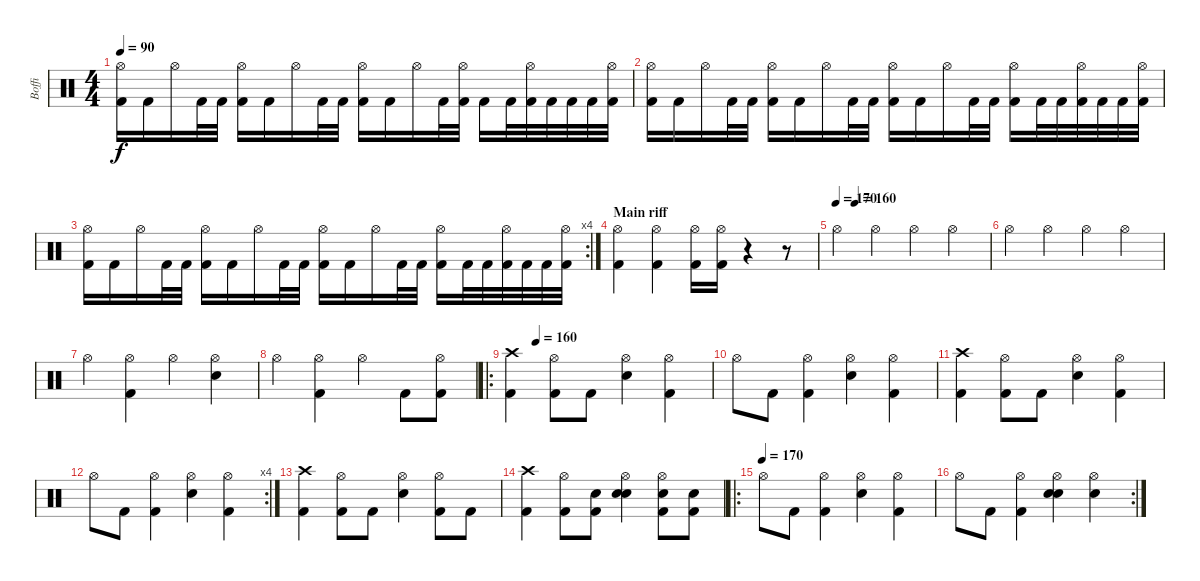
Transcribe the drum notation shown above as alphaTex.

\track ("Boffi" "Boffi") {instrument percussion}
\staff {score}
\articulation defaults
\ts (4 4)
\tempo 90
\clef neutral
\ks c
("Hi-Hat (open)" "Kick (hit) 2").16{dy f} "Kick (hit) 2".16 "Hi-Hat (open)".16 "Kick (hit) 2".32 "Kick (hit) 2".32 ("Hi-Hat (open)" "Kick (hit) 2").16 "Kick (hit) 2".16 "Hi-Hat (open)".16 "Kick (hit) 2".32 "Kick (hit) 2".32 ("Hi-Hat (open)" "Kick (hit) 2").16 "Kick (hit) 2".16 "Hi-Hat (open)".16 "Kick (hit) 2".32 ("Hi-Hat (open)" "Kick (hit) 2").32 "Kick (hit) 2".16 "Kick (hit) 2".32 ("Hi-Hat (open)" "Kick (hit) 2").32 "Kick (hit) 2".32 "Kick (hit) 2".32 "Kick (hit) 2".32 ("Hi-Hat (open)" "Kick (hit) 2").32 |
("Hi-Hat (open)" "Kick (hit) 2").16 "Kick (hit) 2".16 "Hi-Hat (open)".16 "Kick (hit) 2".32 "Kick (hit) 2".32 ("Hi-Hat (open)" "Kick (hit) 2").16 "Kick (hit) 2".16 "Hi-Hat (open)".16 "Kick (hit) 2".32 "Kick (hit) 2".32 ("Hi-Hat (open)" "Kick (hit) 2").16 "Kick (hit) 2".16 "Hi-Hat (open)".16 "Kick (hit) 2".32 "Kick (hit) 2".32 ("Hi-Hat (open)" "Kick (hit) 2").16 "Kick (hit) 2".32 "Kick (hit) 2".32 ("Hi-Hat (open)" "Kick (hit) 2").32 "Kick (hit) 2".32 "Kick (hit) 2".32 ("Hi-Hat (open)" "Kick (hit) 2").32 |
\rc 4
("Hi-Hat (open)" "Kick (hit) 2").16 "Kick (hit) 2".16 "Hi-Hat (open)".16 "Kick (hit) 2".32 "Kick (hit) 2".32 ("Hi-Hat (open)" "Kick (hit) 2").16 "Kick (hit) 2".16 "Hi-Hat (open)".16 "Kick (hit) 2".32 "Kick (hit) 2".32 ("Hi-Hat (open)" "Kick (hit) 2").16 "Kick (hit) 2".16 "Hi-Hat (open)".16 "Kick (hit) 2".32 "Kick (hit) 2".32 ("Hi-Hat (open)" "Kick (hit) 2").16 "Kick (hit) 2".32 "Kick (hit) 2".32 ("Hi-Hat (open)" "Kick (hit) 2").32 "Kick (hit) 2".32 "Kick (hit) 2".32 ("Hi-Hat (open)" "Kick (hit) 2").32 |
\section ("" "Main riff")
("Hi-Hat (open)" "Kick (hit) 2").4 ("Hi-Hat (open)" "Kick (hit) 2").4 ("Hi-Hat (open)" "Kick (hit) 2").16 ("Hi-Hat (open)" "Kick (hit) 2").16 r.4 r.8 |
\tempo 170
\tempo (160 0.125)
"Hi-Hat (open)".4 "Hi-Hat (open)".4 "Hi-Hat (open)".4 "Hi-Hat (open)".4 |
"Hi-Hat (open)".4 "Hi-Hat (open)".4 "Hi-Hat (open)".4 "Hi-Hat (open)".4 |
"Hi-Hat (open)".4 ("Kick (hit) 2" "Hi-Hat (open)").4 "Hi-Hat (open)".4 ("Snare (hit) 2" "Hi-Hat (open)").4 |
"Hi-Hat (open)".4 ("Kick (hit) 2" "Hi-Hat (open)").4 "Hi-Hat (open)".4 "Kick (hit) 2".8 ("Hi-Hat (open)" "Kick (hit) 2").8 |
\ro
\tempo (160 0.125)
("Crash high (hit)" "Kick (hit) 2").4 ("Hi-Hat (open)" "Kick (hit) 2").8 "Kick (hit) 2".8 ("Hi-Hat (open)" "Electric Snare (hit)").4 ("Hi-Hat (open)" "Kick (hit) 2").4 |
"Hi-Hat (open)".8 "Kick (hit) 2".8 ("Hi-Hat (open)" "Kick (hit) 2").4 ("Hi-Hat (open)" "Electric Snare (hit)").4 ("Hi-Hat (open)" "Kick (hit) 2").4 |
("Crash high (hit)" "Kick (hit) 2").4 ("Hi-Hat (open)" "Kick (hit) 2").8 "Kick (hit) 2".8 ("Hi-Hat (open)" "Electric Snare (hit)").4 ("Hi-Hat (open)" "Kick (hit) 2").4 |
\rc 4 "Hi-Hat (open)".8 "Kick (hit) 2".8
("Hi-Hat (open)" "Kick (hit) 2").4 ("Hi-Hat (open)" "Electric Snare (hit)").4 ("Hi-Hat (open)" "Kick (hit) 2").4 |
("Crash high (hit)" "Kick (hit) 2").4 ("Hi-Hat (open)" "Kick (hit) 2").8 "Kick (hit) 2".8 ("Hi-Hat (open)" "Electric Snare (hit)").4 ("Hi-Hat (open)" "Kick (hit) 2").8 "Kick (hit) 2".8 |
("Crash high (hit)" "Kick (hit) 2").4 ("Hi-Hat (open)" "Kick (hit) 2").8 ("Snare (hit) 2" "Kick (hit) 2").8 ("Hi-Hat (open)" "Electric Snare (hit)" "Snare (hit) 2").4 ("Hi-Hat (open)" "Snare (hit) 2" "Kick (hit) 2").8 ("Snare (hit) 2" "Kick (hit) 2").8 |
\ro
\tempo (170)
"Hi-Hat (open)".8 "Kick (hit) 2".8 ("Hi-Hat (open)" "Kick (hit) 2").4 ("Hi-Hat (open)" "Electric Snare (hit)").4 ("Hi-Hat (open)" "Kick (hit) 2").4 |
\rc 2 "Hi-Hat (open)".8 "Kick (hit) 2".8
("Hi-Hat (open)" "Kick (hit) 2").4 ("Hi-Hat (open)" "Electric Snare (hit)" "Snare (hit) 2").4 ("Hi-Hat (open)" "Snare (hit) 2").4
